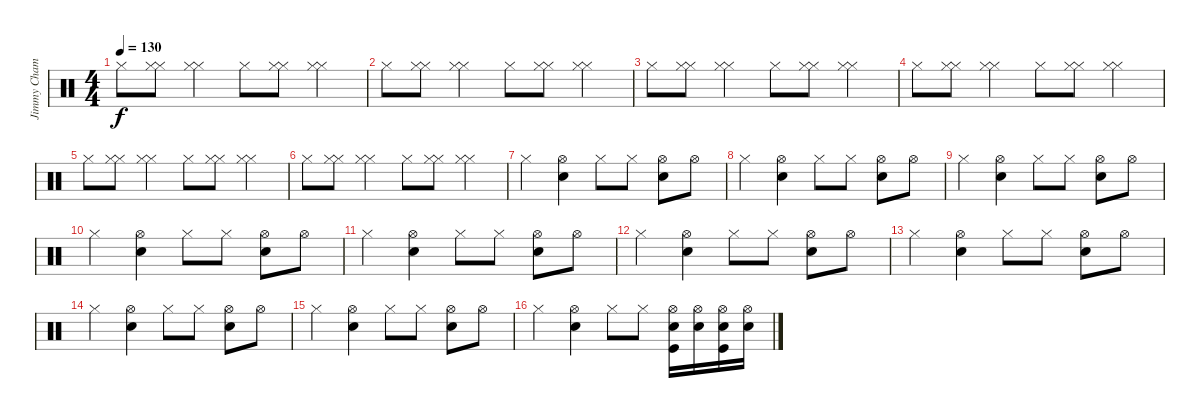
\track ("Jimmy Chamberlin (Drums)" "Jimmy Cham") {instrument percussion}
\staff {score}
\articulation defaults
\ts (4 4)
\tempo 130
\clef neutral
\ks c "Hi-Hat (closed)".8{dy f}
("Hi-Hat (closed)" "Hi-Hat (closed)").8 ("Hi-Hat (closed)" "Hi-Hat (closed)").4 "Hi-Hat (closed)".8 ("Hi-Hat (closed)" "Hi-Hat (closed)").8 ("Hi-Hat (closed)" "Hi-Hat (closed)").4 |
"Hi-Hat (closed)".8 ("Hi-Hat (closed)" "Hi-Hat (closed)").8 ("Hi-Hat (closed)" "Hi-Hat (closed)").4 "Hi-Hat (closed)".8 ("Hi-Hat (closed)" "Hi-Hat (closed)").8 ("Hi-Hat (closed)" "Hi-Hat (closed)").4 |
"Hi-Hat (closed)".8 ("Hi-Hat (closed)" "Hi-Hat (closed)").8 ("Hi-Hat (closed)" "Hi-Hat (closed)").4 "Hi-Hat (closed)".8 ("Hi-Hat (closed)" "Hi-Hat (closed)").8 ("Hi-Hat (closed)" "Hi-Hat (closed)").4 |
"Hi-Hat (closed)".8 ("Hi-Hat (closed)" "Hi-Hat (closed)").8 ("Hi-Hat (closed)" "Hi-Hat (closed)").4 "Hi-Hat (closed)".8 ("Hi-Hat (closed)" "Hi-Hat (closed)").8 ("Hi-Hat (closed)" "Hi-Hat (closed)").4 |
"Hi-Hat (closed)".8 ("Hi-Hat (closed)" "Hi-Hat (closed)").8 ("Hi-Hat (closed)" "Hi-Hat (closed)").4 "Hi-Hat (closed)".8 ("Hi-Hat (closed)" "Hi-Hat (closed)").8 ("Hi-Hat (closed)" "Hi-Hat (closed)").4 |
"Hi-Hat (closed)".8 ("Hi-Hat (closed)" "Hi-Hat (closed)").8 ("Hi-Hat (closed)" "Hi-Hat (closed)").4 "Hi-Hat (closed)".8 ("Hi-Hat (closed)" "Hi-Hat (closed)").8 ("Hi-Hat (closed)" "Hi-Hat (closed)").4 |
"Hi-Hat (closed)".4 ("Snare (hit) 2" "Hi-Hat (open)").4 "Hi-Hat (closed)".8 "Hi-Hat (closed)".8 ("Snare (hit) 2" "Hi-Hat (open)").8 "Hi-Hat (open)".8 |
"Hi-Hat (closed)".4 ("Snare (hit) 2" "Hi-Hat (open)").4 "Hi-Hat (closed)".8 "Hi-Hat (closed)".8 ("Snare (hit) 2" "Hi-Hat (open)").8 "Hi-Hat (open)".8 |
"Hi-Hat (closed)".4 ("Snare (hit) 2" "Hi-Hat (open)").4 "Hi-Hat (closed)".8 "Hi-Hat (closed)".8 ("Snare (hit) 2" "Hi-Hat (open)").8 "Hi-Hat (open)".8 |
"Hi-Hat (closed)".4 ("Snare (hit) 2" "Hi-Hat (open)").4 "Hi-Hat (closed)".8 "Hi-Hat (closed)".8 ("Snare (hit) 2" "Hi-Hat (open)").8 "Hi-Hat (open)".8 |
"Hi-Hat (closed)".4 ("Snare (hit) 2" "Hi-Hat (open)").4 "Hi-Hat (closed)".8 "Hi-Hat (closed)".8 ("Snare (hit) 2" "Hi-Hat (open)").8 "Hi-Hat (open)".8 |
"Hi-Hat (closed)".4 ("Snare (hit) 2" "Hi-Hat (open)").4 "Hi-Hat (closed)".8 "Hi-Hat (closed)".8 ("Snare (hit) 2" "Hi-Hat (open)").8 "Hi-Hat (open)".8 |
"Hi-Hat (closed)".4 ("Snare (hit) 2" "Hi-Hat (open)").4 "Hi-Hat (closed)".8 "Hi-Hat (closed)".8 ("Snare (hit) 2" "Hi-Hat (open)").8 "Hi-Hat (open)".8 |
"Hi-Hat (closed)".4 ("Snare (hit) 2" "Hi-Hat (open)").4 "Hi-Hat (closed)".8 "Hi-Hat (closed)".8 ("Snare (hit) 2" "Hi-Hat (open)").8 "Hi-Hat (open)".8 |
"Hi-Hat (closed)".4 ("Snare (hit) 2" "Hi-Hat (open)").4 "Hi-Hat (closed)".8 "Hi-Hat (closed)".8 ("Snare (hit) 2" "Hi-Hat (open)").8 "Hi-Hat (open)".8 |
"Hi-Hat (closed)".4 ("Snare (hit) 2" "Hi-Hat (open)").4 "Hi-Hat (closed)".8 "Hi-Hat (closed)".8 ("Snare (hit) 2" "Hi-Hat (open)" "Kick (hit)").16 ("Snare (hit) 2" "Hi-Hat (open)").16 ("Snare (hit) 2" "Hi-Hat (open)" "Kick (hit)").16 ("Snare (hit) 2" "Hi-Hat (open)").16
